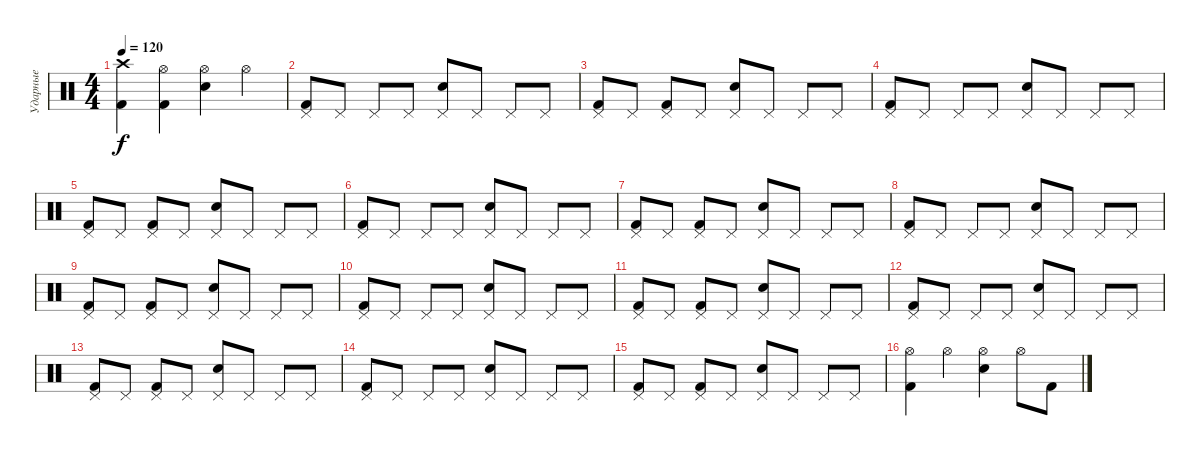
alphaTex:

\track ("Ударные" "Ударные") {instrument percussion}
\staff {score}
\articulation defaults
\ts (4 4)
\tempo 120
\clef neutral
\ks c
("Crash high (hit)" "Kick (hit) 2").4{dy f} ("Hi-Hat (open)" "Kick (hit) 2").4 ("Hi-Hat (open)" "Snare (hit) 2").4 "Hi-Hat (open)".4 |
("Pedal Hi-Hat (hit)" "Kick (hit) 2").8 "Pedal Hi-Hat (hit)".8 "Pedal Hi-Hat (hit)".8 "Pedal Hi-Hat (hit)".8 ("Pedal Hi-Hat (hit)" "Snare (hit) 2").8 "Pedal Hi-Hat (hit)".8 "Pedal Hi-Hat (hit)".8 "Pedal Hi-Hat (hit)".8 |
("Pedal Hi-Hat (hit)" "Kick (hit) 2").8 "Pedal Hi-Hat (hit)".8 ("Pedal Hi-Hat (hit)" "Kick (hit) 2").8 "Pedal Hi-Hat (hit)".8 ("Pedal Hi-Hat (hit)" "Snare (hit) 2").8 "Pedal Hi-Hat (hit)".8 "Pedal Hi-Hat (hit)".8 "Pedal Hi-Hat (hit)".8 |
("Pedal Hi-Hat (hit)" "Kick (hit) 2").8 "Pedal Hi-Hat (hit)".8 "Pedal Hi-Hat (hit)".8 "Pedal Hi-Hat (hit)".8 ("Pedal Hi-Hat (hit)" "Snare (hit) 2").8 "Pedal Hi-Hat (hit)".8 "Pedal Hi-Hat (hit)".8 "Pedal Hi-Hat (hit)".8 |
("Pedal Hi-Hat (hit)" "Kick (hit) 2").8 "Pedal Hi-Hat (hit)".8 ("Pedal Hi-Hat (hit)" "Kick (hit) 2").8 "Pedal Hi-Hat (hit)".8 ("Pedal Hi-Hat (hit)" "Snare (hit) 2").8 "Pedal Hi-Hat (hit)".8 "Pedal Hi-Hat (hit)".8 "Pedal Hi-Hat (hit)".8 |
("Pedal Hi-Hat (hit)" "Kick (hit) 2").8 "Pedal Hi-Hat (hit)".8 "Pedal Hi-Hat (hit)".8 "Pedal Hi-Hat (hit)".8 ("Pedal Hi-Hat (hit)" "Snare (hit) 2").8 "Pedal Hi-Hat (hit)".8 "Pedal Hi-Hat (hit)".8 "Pedal Hi-Hat (hit)".8 |
("Pedal Hi-Hat (hit)" "Kick (hit) 2").8 "Pedal Hi-Hat (hit)".8 ("Pedal Hi-Hat (hit)" "Kick (hit) 2").8 "Pedal Hi-Hat (hit)".8 ("Pedal Hi-Hat (hit)" "Snare (hit) 2").8 "Pedal Hi-Hat (hit)".8 "Pedal Hi-Hat (hit)".8 "Pedal Hi-Hat (hit)".8 |
("Pedal Hi-Hat (hit)" "Kick (hit) 2").8 "Pedal Hi-Hat (hit)".8 "Pedal Hi-Hat (hit)".8 "Pedal Hi-Hat (hit)".8 ("Pedal Hi-Hat (hit)" "Snare (hit) 2").8 "Pedal Hi-Hat (hit)".8 "Pedal Hi-Hat (hit)".8 "Pedal Hi-Hat (hit)".8 |
("Pedal Hi-Hat (hit)" "Kick (hit) 2").8 "Pedal Hi-Hat (hit)".8 ("Pedal Hi-Hat (hit)" "Kick (hit) 2").8 "Pedal Hi-Hat (hit)".8 ("Pedal Hi-Hat (hit)" "Snare (hit) 2").8 "Pedal Hi-Hat (hit)".8 "Pedal Hi-Hat (hit)".8 "Pedal Hi-Hat (hit)".8 |
("Pedal Hi-Hat (hit)" "Kick (hit) 2").8 "Pedal Hi-Hat (hit)".8 "Pedal Hi-Hat (hit)".8 "Pedal Hi-Hat (hit)".8 ("Pedal Hi-Hat (hit)" "Snare (hit) 2").8 "Pedal Hi-Hat (hit)".8 "Pedal Hi-Hat (hit)".8 "Pedal Hi-Hat (hit)".8 |
("Pedal Hi-Hat (hit)" "Kick (hit) 2").8 "Pedal Hi-Hat (hit)".8 ("Pedal Hi-Hat (hit)" "Kick (hit) 2").8 "Pedal Hi-Hat (hit)".8 ("Pedal Hi-Hat (hit)" "Snare (hit) 2").8 "Pedal Hi-Hat (hit)".8 "Pedal Hi-Hat (hit)".8 "Pedal Hi-Hat (hit)".8 |
("Pedal Hi-Hat (hit)" "Kick (hit) 2").8 "Pedal Hi-Hat (hit)".8 "Pedal Hi-Hat (hit)".8 "Pedal Hi-Hat (hit)".8 ("Pedal Hi-Hat (hit)" "Snare (hit) 2").8 "Pedal Hi-Hat (hit)".8 "Pedal Hi-Hat (hit)".8 "Pedal Hi-Hat (hit)".8 |
("Pedal Hi-Hat (hit)" "Kick (hit) 2").8 "Pedal Hi-Hat (hit)".8 ("Pedal Hi-Hat (hit)" "Kick (hit) 2").8 "Pedal Hi-Hat (hit)".8 ("Pedal Hi-Hat (hit)" "Snare (hit) 2").8 "Pedal Hi-Hat (hit)".8 "Pedal Hi-Hat (hit)".8 "Pedal Hi-Hat (hit)".8 |
("Pedal Hi-Hat (hit)" "Kick (hit) 2").8 "Pedal Hi-Hat (hit)".8 "Pedal Hi-Hat (hit)".8 "Pedal Hi-Hat (hit)".8 ("Pedal Hi-Hat (hit)" "Snare (hit) 2").8 "Pedal Hi-Hat (hit)".8 "Pedal Hi-Hat (hit)".8 "Pedal Hi-Hat (hit)".8 |
("Pedal Hi-Hat (hit)" "Kick (hit) 2").8 "Pedal Hi-Hat (hit)".8 ("Pedal Hi-Hat (hit)" "Kick (hit) 2").8 "Pedal Hi-Hat (hit)".8 ("Pedal Hi-Hat (hit)" "Snare (hit) 2").8 "Pedal Hi-Hat (hit)".8 "Pedal Hi-Hat (hit)".8 "Pedal Hi-Hat (hit)".8 |
("Hi-Hat (open)" "Kick (hit) 2").4 "Hi-Hat (open)".4 ("Hi-Hat (open)" "Snare (hit) 2").4 "Hi-Hat (open)".8 "Kick (hit) 2".8
